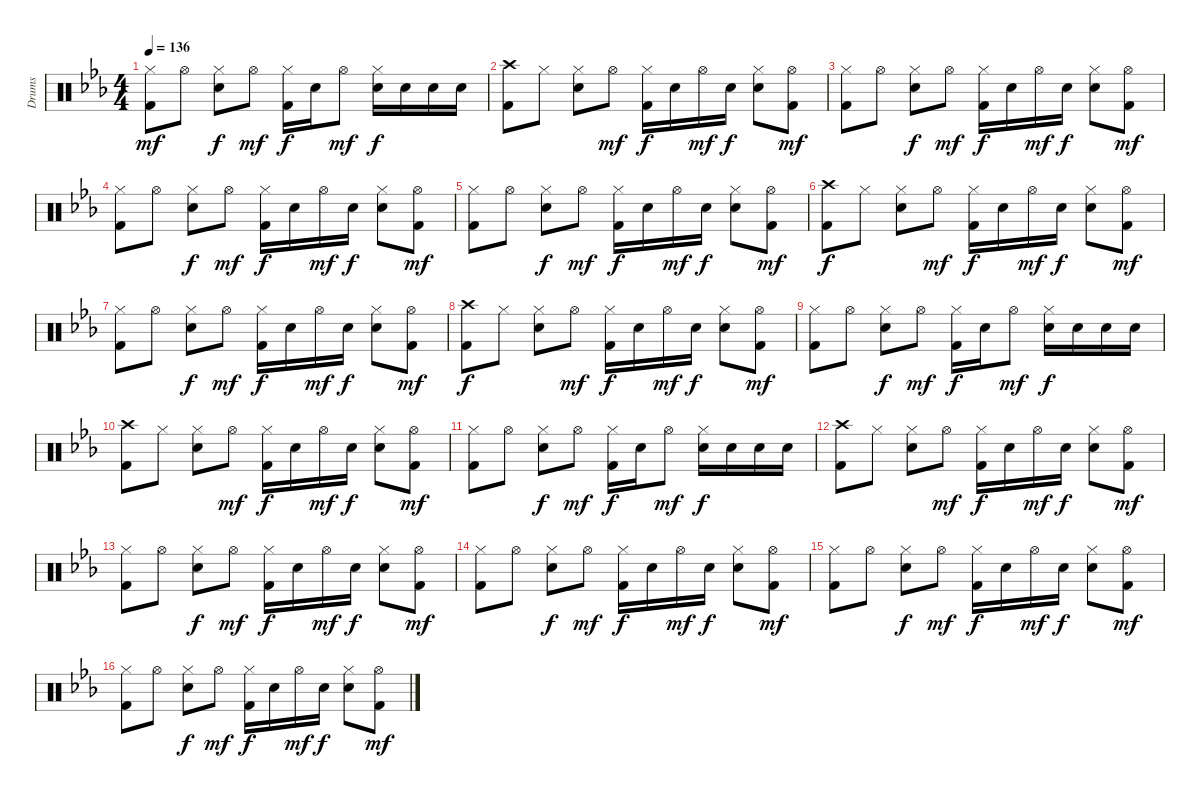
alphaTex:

\track ("Drums" "Drums") {instrument percussion}
\staff {score}
\articulation defaults
\ts (4 4)
\tempo 136
\clef neutral
\ks eb
("Hi-Hat (closed)" "Kick (hit) 2").8{dy mf} "Hi-Hat (open)".8 ("Hi-Hat (closed)" "Electric Snare (hit)").8{dy f} "Hi-Hat (open)".8{dy mf} ("Hi-Hat (closed)" "Kick (hit) 2").16{dy f} "Electric Snare (hit)".16 "Hi-Hat (open)".8{dy mf} ("Hi-Hat (closed)" "Electric Snare (hit)").16{dy f} "Electric Snare (hit)".16 "Electric Snare (hit)".16 "Electric Snare (hit)".16 |
("Crash high (hit)" "Kick (hit) 2").8 "Hi-Hat (closed)".8 ("Hi-Hat (closed)" "Electric Snare (hit)").8 "Hi-Hat (open)".8{dy mf} ("Hi-Hat (closed)" "Kick (hit) 2").16{dy f} "Electric Snare (hit)".16 "Hi-Hat (open)".16{dy mf} "Electric Snare (hit)".16{dy f} ("Hi-Hat (closed)" "Electric Snare (hit)").8 ("Hi-Hat (open)" "Kick (hit) 2").8{dy mf} |
("Hi-Hat (closed)" "Kick (hit) 2").8 "Hi-Hat (open)".8 ("Hi-Hat (closed)" "Electric Snare (hit)").8{dy f} "Hi-Hat (open)".8{dy mf} ("Hi-Hat (closed)" "Kick (hit) 2").16{dy f} "Electric Snare (hit)".16 "Hi-Hat (open)".16{dy mf} "Electric Snare (hit)".16{dy f} ("Hi-Hat (closed)" "Electric Snare (hit)").8 ("Hi-Hat (open)" "Kick (hit) 2").8{dy mf} |
("Hi-Hat (closed)" "Kick (hit) 2").8 "Hi-Hat (open)".8 ("Hi-Hat (closed)" "Electric Snare (hit)").8{dy f} "Hi-Hat (open)".8{dy mf} ("Hi-Hat (closed)" "Kick (hit) 2").16{dy f} "Electric Snare (hit)".16 "Hi-Hat (open)".16{dy mf} "Electric Snare (hit)".16{dy f} ("Hi-Hat (closed)" "Electric Snare (hit)").8 ("Hi-Hat (open)" "Kick (hit) 2").8{dy mf} |
("Hi-Hat (closed)" "Kick (hit) 2").8 "Hi-Hat (open)".8 ("Hi-Hat (closed)" "Electric Snare (hit)").8{dy f} "Hi-Hat (open)".8{dy mf} ("Hi-Hat (closed)" "Kick (hit) 2").16{dy f} "Electric Snare (hit)".16 "Hi-Hat (open)".16{dy mf} "Electric Snare (hit)".16{dy f} ("Hi-Hat (closed)" "Electric Snare (hit)").8 ("Hi-Hat (open)" "Kick (hit) 2").8{dy mf} |
("Crash high (hit)" "Kick (hit) 2").8{dy f} "Hi-Hat (closed)".8 ("Hi-Hat (closed)" "Electric Snare (hit)").8 "Hi-Hat (open)".8{dy mf} ("Hi-Hat (closed)" "Kick (hit) 2").16{dy f} "Electric Snare (hit)".16 "Hi-Hat (open)".16{dy mf} "Electric Snare (hit)".16{dy f} ("Hi-Hat (closed)" "Electric Snare (hit)").8 ("Hi-Hat (open)" "Kick (hit) 2").8{dy mf} |
("Hi-Hat (closed)" "Kick (hit) 2").8 "Hi-Hat (open)".8 ("Hi-Hat (closed)" "Electric Snare (hit)").8{dy f} "Hi-Hat (open)".8{dy mf} ("Hi-Hat (closed)" "Kick (hit) 2").16{dy f} "Electric Snare (hit)".16 "Hi-Hat (open)".16{dy mf} "Electric Snare (hit)".16{dy f} ("Hi-Hat (closed)" "Electric Snare (hit)").8 ("Hi-Hat (open)" "Kick (hit) 2").8{dy mf} |
("Crash high (hit)" "Kick (hit) 2").8{dy f} "Hi-Hat (closed)".8 ("Hi-Hat (closed)" "Electric Snare (hit)").8 "Hi-Hat (open)".8{dy mf} ("Hi-Hat (closed)" "Kick (hit) 2").16{dy f} "Electric Snare (hit)".16 "Hi-Hat (open)".16{dy mf} "Electric Snare (hit)".16{dy f} ("Hi-Hat (closed)" "Electric Snare (hit)").8 ("Hi-Hat (open)" "Kick (hit) 2").8{dy mf} |
("Hi-Hat (closed)" "Kick (hit) 2").8 "Hi-Hat (open)".8 ("Hi-Hat (closed)" "Electric Snare (hit)").8{dy f} "Hi-Hat (open)".8{dy mf} ("Hi-Hat (closed)" "Kick (hit) 2").16{dy f} "Electric Snare (hit)".16 "Hi-Hat (open)".8{dy mf} ("Hi-Hat (closed)" "Electric Snare (hit)").16{dy f} "Electric Snare (hit)".16 "Electric Snare (hit)".16 "Electric Snare (hit)".16 |
("Crash high (hit)" "Kick (hit) 2").8 "Hi-Hat (closed)".8 ("Hi-Hat (closed)" "Electric Snare (hit)").8 "Hi-Hat (open)".8{dy mf} ("Hi-Hat (closed)" "Kick (hit) 2").16{dy f} "Electric Snare (hit)".16 "Hi-Hat (open)".16{dy mf} "Electric Snare (hit)".16{dy f} ("Hi-Hat (closed)" "Electric Snare (hit)").8 ("Hi-Hat (open)" "Kick (hit) 2").8{dy mf} |
("Hi-Hat (closed)" "Kick (hit) 2").8 "Hi-Hat (open)".8 ("Hi-Hat (closed)" "Electric Snare (hit)").8{dy f} "Hi-Hat (open)".8{dy mf} ("Hi-Hat (closed)" "Kick (hit) 2").16{dy f} "Electric Snare (hit)".16 "Hi-Hat (open)".8{dy mf} ("Hi-Hat (closed)" "Electric Snare (hit)").16{dy f} "Electric Snare (hit)".16 "Electric Snare (hit)".16 "Electric Snare (hit)".16 |
("Crash high (hit)" "Kick (hit) 2").8 "Hi-Hat (closed)".8 ("Hi-Hat (closed)" "Electric Snare (hit)").8 "Hi-Hat (open)".8{dy mf} ("Hi-Hat (closed)" "Kick (hit) 2").16{dy f} "Electric Snare (hit)".16 "Hi-Hat (open)".16{dy mf} "Electric Snare (hit)".16{dy f} ("Hi-Hat (closed)" "Electric Snare (hit)").8 ("Hi-Hat (open)" "Kick (hit) 2").8{dy mf} |
("Hi-Hat (closed)" "Kick (hit) 2").8 "Hi-Hat (open)".8 ("Hi-Hat (closed)" "Electric Snare (hit)").8{dy f} "Hi-Hat (open)".8{dy mf} ("Hi-Hat (closed)" "Kick (hit) 2").16{dy f} "Electric Snare (hit)".16 "Hi-Hat (open)".16{dy mf} "Electric Snare (hit)".16{dy f} ("Hi-Hat (closed)" "Electric Snare (hit)").8 ("Hi-Hat (open)" "Kick (hit) 2").8{dy mf} |
("Hi-Hat (closed)" "Kick (hit) 2").8 "Hi-Hat (open)".8 ("Hi-Hat (closed)" "Electric Snare (hit)").8{dy f} "Hi-Hat (open)".8{dy mf} ("Hi-Hat (closed)" "Kick (hit) 2").16{dy f} "Electric Snare (hit)".16 "Hi-Hat (open)".16{dy mf} "Electric Snare (hit)".16{dy f} ("Hi-Hat (closed)" "Electric Snare (hit)").8 ("Hi-Hat (open)" "Kick (hit) 2").8{dy mf} |
("Hi-Hat (closed)" "Kick (hit) 2").8 "Hi-Hat (open)".8 ("Hi-Hat (closed)" "Electric Snare (hit)").8{dy f} "Hi-Hat (open)".8{dy mf} ("Hi-Hat (closed)" "Kick (hit) 2").16{dy f} "Electric Snare (hit)".16 "Hi-Hat (open)".16{dy mf} "Electric Snare (hit)".16{dy f} ("Hi-Hat (closed)" "Electric Snare (hit)").8 ("Hi-Hat (open)" "Kick (hit) 2").8{dy mf} |
("Hi-Hat (closed)" "Kick (hit) 2").8 "Hi-Hat (open)".8 ("Hi-Hat (closed)" "Electric Snare (hit)").8{dy f} "Hi-Hat (open)".8{dy mf} ("Hi-Hat (closed)" "Kick (hit) 2").16{dy f} "Electric Snare (hit)".16 "Hi-Hat (open)".16{dy mf} "Electric Snare (hit)".16{dy f} ("Hi-Hat (closed)" "Electric Snare (hit)").8 ("Hi-Hat (open)" "Kick (hit) 2").8{dy mf}
